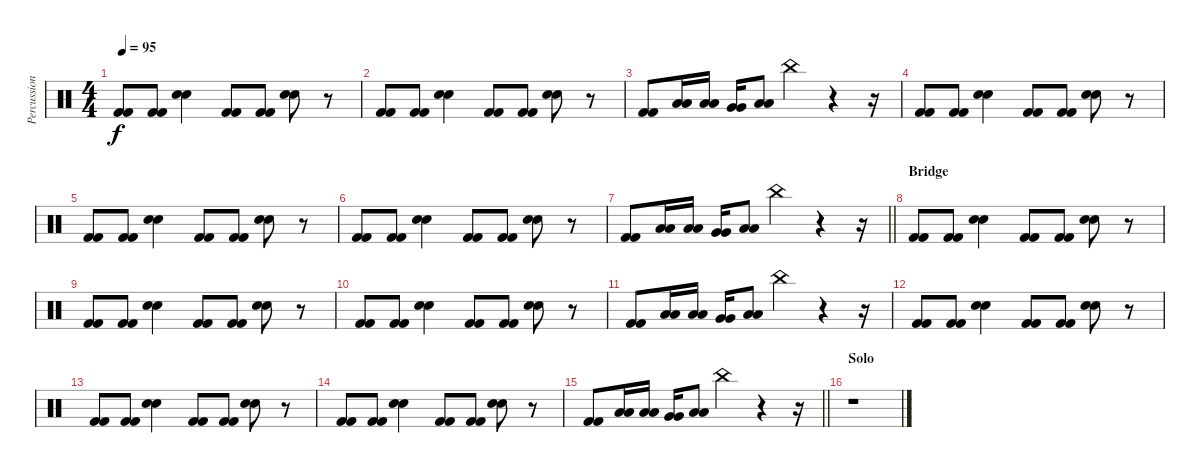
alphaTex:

\track ("Percussion" "Percussion") {instrument percussion}
\staff {score}
\articulation defaults
\ts (4 4)
\tempo 95
\clef neutral
\ks c
("Kick (hit) 2" "Kick (hit) 2").8{dy f} ("Kick (hit) 2" "Kick (hit) 2").8 ("Electric Snare (hit)" "Electric Snare (hit)").4 ("Kick (hit) 2" "Kick (hit) 2").8 ("Kick (hit) 2" "Kick (hit) 2").8 ("Electric Snare (hit)" "Electric Snare (hit)").8 r.8 |
("Kick (hit) 2" "Kick (hit) 2").8 ("Kick (hit) 2" "Kick (hit) 2").8 ("Electric Snare (hit)" "Electric Snare (hit)").4 ("Kick (hit) 2" "Kick (hit) 2").8 ("Kick (hit) 2" "Kick (hit) 2").8 ("Electric Snare (hit)" "Electric Snare (hit)").8 r.8 |
("Kick (hit) 2" "Kick (hit) 2").8 ("Low Floor Tom (hit)" "Low Floor Tom (hit)").16 ("Low Floor Tom (hit)" "Low Floor Tom (hit)").16 ("Very Low Tom (hit)" "Very Low Tom (hit)").16 ("Low Floor Tom (hit)" "Low Floor Tom (hit)").8 "China (hit)".4 r.4 r.16 |
("Kick (hit) 2" "Kick (hit) 2").8 ("Kick (hit) 2" "Kick (hit) 2").8 ("Electric Snare (hit)" "Electric Snare (hit)").4 ("Kick (hit) 2" "Kick (hit) 2").8 ("Kick (hit) 2" "Kick (hit) 2").8 ("Electric Snare (hit)" "Electric Snare (hit)").8 r.8 |
("Kick (hit) 2" "Kick (hit) 2").8 ("Kick (hit) 2" "Kick (hit) 2").8 ("Electric Snare (hit)" "Electric Snare (hit)").4 ("Kick (hit) 2" "Kick (hit) 2").8 ("Kick (hit) 2" "Kick (hit) 2").8 ("Electric Snare (hit)" "Electric Snare (hit)").8 r.8 |
("Kick (hit) 2" "Kick (hit) 2").8 ("Kick (hit) 2" "Kick (hit) 2").8 ("Electric Snare (hit)" "Electric Snare (hit)").4 ("Kick (hit) 2" "Kick (hit) 2").8 ("Kick (hit) 2" "Kick (hit) 2").8 ("Electric Snare (hit)" "Electric Snare (hit)").8 r.8 |
\barLineRight lightlight
("Kick (hit) 2" "Kick (hit) 2").8 ("Low Floor Tom (hit)" "Low Floor Tom (hit)").16 ("Low Floor Tom (hit)" "Low Floor Tom (hit)").16 ("Very Low Tom (hit)" "Very Low Tom (hit)").16 ("Low Floor Tom (hit)" "Low Floor Tom (hit)").8 "China (hit)".4 r.4 r.16 |
\section ("" "Bridge")
("Kick (hit) 2" "Kick (hit) 2").8 ("Kick (hit) 2" "Kick (hit) 2").8 ("Electric Snare (hit)" "Electric Snare (hit)").4 ("Kick (hit) 2" "Kick (hit) 2").8 ("Kick (hit) 2" "Kick (hit) 2").8 ("Electric Snare (hit)" "Electric Snare (hit)").8 r.8 |
("Kick (hit) 2" "Kick (hit) 2").8 ("Kick (hit) 2" "Kick (hit) 2").8 ("Electric Snare (hit)" "Electric Snare (hit)").4 ("Kick (hit) 2" "Kick (hit) 2").8 ("Kick (hit) 2" "Kick (hit) 2").8 ("Electric Snare (hit)" "Electric Snare (hit)").8 r.8 |
("Kick (hit) 2" "Kick (hit) 2").8 ("Kick (hit) 2" "Kick (hit) 2").8 ("Electric Snare (hit)" "Electric Snare (hit)").4 ("Kick (hit) 2" "Kick (hit) 2").8 ("Kick (hit) 2" "Kick (hit) 2").8 ("Electric Snare (hit)" "Electric Snare (hit)").8 r.8 |
("Kick (hit) 2" "Kick (hit) 2").8 ("Low Floor Tom (hit)" "Low Floor Tom (hit)").16 ("Low Floor Tom (hit)" "Low Floor Tom (hit)").16 ("Very Low Tom (hit)" "Very Low Tom (hit)").16 ("Low Floor Tom (hit)" "Low Floor Tom (hit)").8 "China (hit)".4 r.4 r.16 |
("Kick (hit) 2" "Kick (hit) 2").8 ("Kick (hit) 2" "Kick (hit) 2").8 ("Electric Snare (hit)" "Electric Snare (hit)").4 ("Kick (hit) 2" "Kick (hit) 2").8 ("Kick (hit) 2" "Kick (hit) 2").8 ("Electric Snare (hit)" "Electric Snare (hit)").8 r.8 |
("Kick (hit) 2" "Kick (hit) 2").8 ("Kick (hit) 2" "Kick (hit) 2").8 ("Electric Snare (hit)" "Electric Snare (hit)").4 ("Kick (hit) 2" "Kick (hit) 2").8 ("Kick (hit) 2" "Kick (hit) 2").8 ("Electric Snare (hit)" "Electric Snare (hit)").8 r.8 |
("Kick (hit) 2" "Kick (hit) 2").8 ("Kick (hit) 2" "Kick (hit) 2").8 ("Electric Snare (hit)" "Electric Snare (hit)").4 ("Kick (hit) 2" "Kick (hit) 2").8 ("Kick (hit) 2" "Kick (hit) 2").8 ("Electric Snare (hit)" "Electric Snare (hit)").8 r.8 |
\barLineRight lightlight
("Kick (hit) 2" "Kick (hit) 2").8 ("Low Floor Tom (hit)" "Low Floor Tom (hit)").16 ("Low Floor Tom (hit)" "Low Floor Tom (hit)").16 ("Very Low Tom (hit)" "Very Low Tom (hit)").16 ("Low Floor Tom (hit)" "Low Floor Tom (hit)").8 "China (hit)".4 r.4 r.16 |
\section ("" "Solo")
r.1
